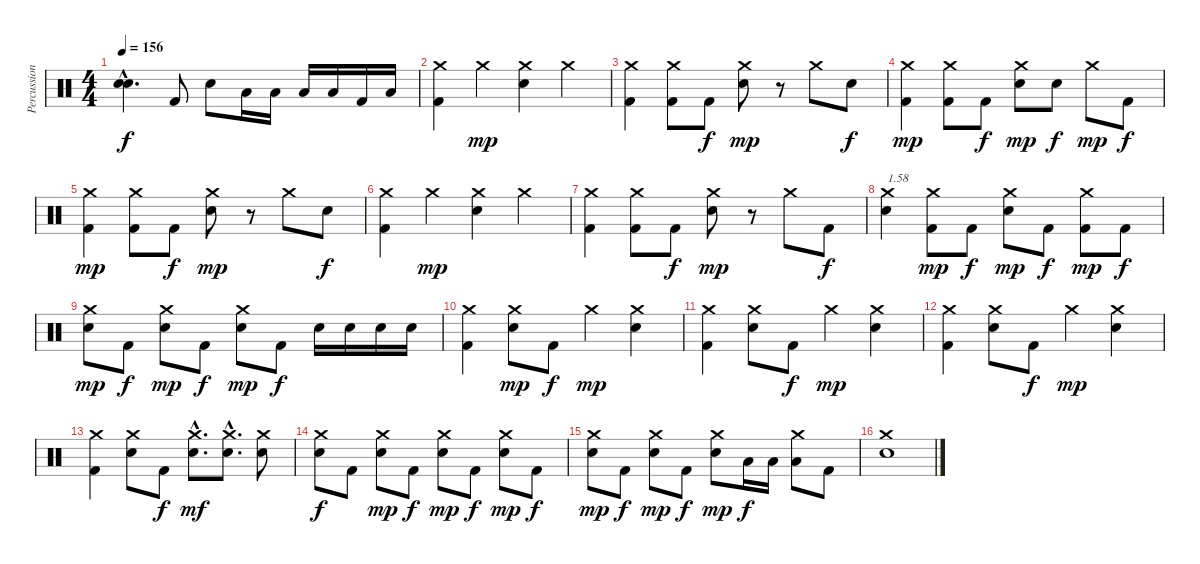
\track ("Percussions" "Percussion") {instrument percussion}
\staff {score}
\articulation defaults
\ts (4 4)
\tempo 156
\clef neutral
\ks c
("Snare (hit)"{hac t} "Snare (hit)"{hac t}).4{d dy f} "Kick (hit) 2".8 "Electric Snare (hit)".8 "Low Floor Tom (hit)".16 "Low Floor Tom (hit)".16 "Low Floor Tom (hit)".16 "Low Floor Tom (hit)".16 "Kick (hit) 2".16 "Low Floor Tom (hit)".16 |
("Kick (hit) 2" "Crash medium (hit)").4 "Crash medium (hit)".4{dy mp} ("Electric Snare (hit)" "Crash medium (hit)").4 "Crash medium (hit)".4 |
("Kick (hit) 2" "Crash medium (hit)").4 ("Kick (hit) 2" "Crash medium (hit)").8 "Kick (hit) 2".8{dy f} ("Electric Snare (hit)" "Crash medium (hit)").8{dy mp} r.8 "Crash medium (hit)".8 "Electric Snare (hit)".8{dy f} |
("Kick (hit) 2" "Crash medium (hit)").4{dy mp} ("Kick (hit) 2" "Crash medium (hit)").8 "Kick (hit) 2".8{dy f} ("Electric Snare (hit)" "Crash medium (hit)").8{dy mp} "Electric Snare (hit)".8{dy f} "Crash medium (hit)".8{dy mp} "Kick (hit) 2".8{dy f} |
("Kick (hit) 2" "Crash medium (hit)").4{dy mp} ("Kick (hit) 2" "Crash medium (hit)").8 "Kick (hit) 2".8{dy f} ("Electric Snare (hit)" "Crash medium (hit)").8{dy mp} r.8 "Crash medium (hit)".8 "Electric Snare (hit)".8{dy f} |
("Kick (hit) 2" "Crash medium (hit)").4 "Crash medium (hit)".4{dy mp} ("Electric Snare (hit)" "Crash medium (hit)").4 "Crash medium (hit)".4 |
("Kick (hit) 2" "Crash medium (hit)").4 ("Kick (hit) 2" "Crash medium (hit)").8 "Kick (hit) 2".8{dy f} ("Electric Snare (hit)" "Crash medium (hit)").8{dy mp} r.8 "Crash medium (hit)".8 "Kick (hit) 2".8{dy f} |
("Electric Snare (hit)" "Crash medium (hit)").4{txt "1.58"} ("Kick (hit) 2" "Crash medium (hit)").8{dy mp} "Kick (hit) 2".8{dy f} ("Electric Snare (hit)" "Crash medium (hit)").8{dy mp} "Kick (hit) 2".8{dy f} ("Kick (hit) 2" "Crash medium (hit)").8{dy mp} "Kick (hit) 2".8{dy f} |
("Electric Snare (hit)" "Crash medium (hit)").8{dy mp} "Kick (hit) 2".8{dy f} ("Electric Snare (hit)" "Crash medium (hit)").8{dy mp} "Kick (hit) 2".8{dy f} ("Electric Snare (hit)" "Crash medium (hit)").8{dy mp} "Kick (hit) 2".8{dy f} "Electric Snare (hit)".16 "Electric Snare (hit)".16 "Electric Snare (hit)".16 "Electric Snare (hit)".16 |
("Kick (hit) 2" "Crash medium (hit)").4 ("Electric Snare (hit)" "Crash medium (hit)").8{dy mp} "Kick (hit) 2".8{dy f} "Crash medium (hit)".4{dy mp} ("Electric Snare (hit)" "Crash medium (hit)").4 |
("Kick (hit) 2" "Crash medium (hit)").4 ("Electric Snare (hit)" "Crash medium (hit)").8 "Kick (hit) 2".8{dy f} "Crash medium (hit)".4{dy mp} ("Electric Snare (hit)" "Crash medium (hit)").4 |
("Kick (hit) 2" "Crash medium (hit)").4 ("Electric Snare (hit)" "Crash medium (hit)").8 "Kick (hit) 2".8{dy f} "Crash medium (hit)".4{dy mp} ("Electric Snare (hit)" "Crash medium (hit)").4 |
("Kick (hit) 2" "Crash medium (hit)").4 ("Electric Snare (hit)" "Crash medium (hit)").8 "Kick (hit) 2".8{dy f} ("Electric Snare (hit)"{hac} "Crash medium (hit)"{hac}).8{d dy mf} ("Electric Snare (hit)"{hac} "Crash medium (hit)"{hac}).8{d} ("Electric Snare (hit)" "Crash medium (hit)").8 |
("Electric Snare (hit)" "Crash medium (hit)").8{dy f} "Kick (hit) 2".8 ("Electric Snare (hit)" "Crash medium (hit)").8{dy mp} "Kick (hit) 2".8{dy f} ("Electric Snare (hit)" "Crash medium (hit)").8{dy mp} "Kick (hit) 2".8{dy f} ("Electric Snare (hit)" "Crash medium (hit)").8{dy mp} "Kick (hit) 2".8{dy f} |
("Electric Snare (hit)" "Crash medium (hit)").8{dy mp} "Kick (hit) 2".8{dy f} ("Electric Snare (hit)" "Crash medium (hit)").8{dy mp} "Kick (hit) 2".8{dy f} ("Electric Snare (hit)" "Crash medium (hit)").8{dy mp} "Low Floor Tom (hit)".16{dy f} "Low Floor Tom (hit)".16 ("Low Floor Tom (hit)" "Crash medium (hit)").8 "Kick (hit) 2".8 |
("Electric Snare (hit)" "Crash medium (hit)").1
